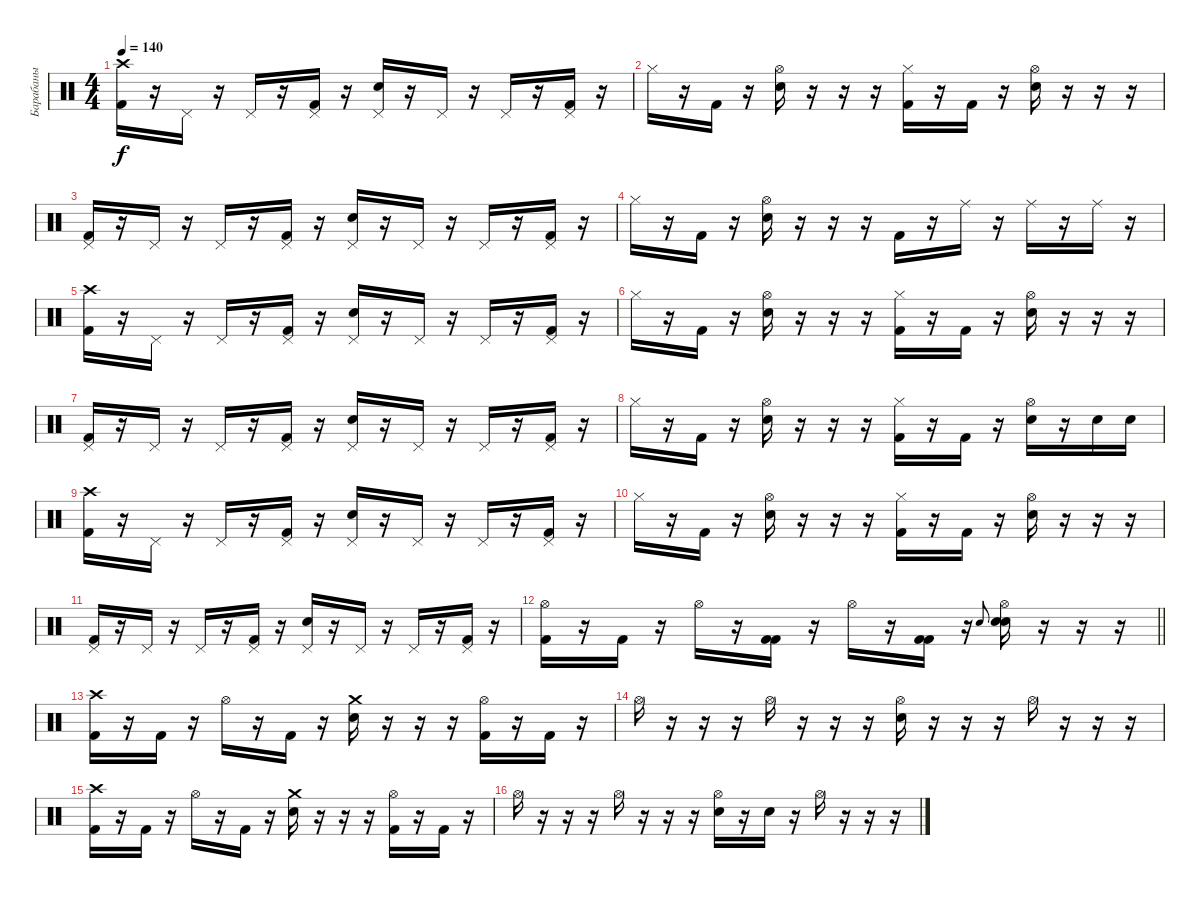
\track ("Барабаны" "Барабаны") {instrument percussion}
\staff {score}
\articulation defaults
\ts (4 4)
\tempo 140
\clef neutral
\ks c
("Crash high (hit)" "Kick (hit) 2").16{dy f} r.16 "Pedal Hi-Hat (hit)".16 r.16 "Pedal Hi-Hat (hit)".16 r.16 ("Pedal Hi-Hat (hit)" "Kick (hit) 2").16 r.16 ("Pedal Hi-Hat (hit)" "Electric Snare (hit)").16 r.16 "Pedal Hi-Hat (hit)".16 r.16 "Pedal Hi-Hat (hit)".16 r.16 ("Pedal Hi-Hat (hit)" "Kick (hit) 2").16 r.16 |
"Hi-Hat (closed)".16 r.16 "Kick (hit) 2".16 r.16 ("Hi-Hat (open)" "Electric Snare (hit)").16 r.16 r.16 r.16 ("Hi-Hat (closed)" "Kick (hit) 2").16 r.16 "Kick (hit) 2".16 r.16 ("Hi-Hat (open)" "Electric Snare (hit)").16 r.16 r.16 r.16 |
("Pedal Hi-Hat (hit)" "Kick (hit) 2").16 r.16 "Pedal Hi-Hat (hit)".16 r.16 "Pedal Hi-Hat (hit)".16 r.16 ("Pedal Hi-Hat (hit)" "Kick (hit) 2").16 r.16 ("Pedal Hi-Hat (hit)" "Electric Snare (hit)").16 r.16 "Pedal Hi-Hat (hit)".16 r.16 "Pedal Hi-Hat (hit)".16 r.16 ("Pedal Hi-Hat (hit)" "Kick (hit) 2").16 r.16 |
"Hi-Hat (closed)".16 r.16 "Kick (hit) 2".16 r.16 ("Hi-Hat (open)" "Electric Snare (hit)").16 r.16 r.16 r.16 "Kick (hit) 2".16 r.16 "Ride (middle)".16 r.16 "Ride (middle)".16 r.16 "Ride (middle)".16 r.16 |
("Crash high (hit)" "Kick (hit) 2").16 r.16 "Pedal Hi-Hat (hit)".16 r.16 "Pedal Hi-Hat (hit)".16 r.16 ("Pedal Hi-Hat (hit)" "Kick (hit) 2").16 r.16 ("Pedal Hi-Hat (hit)" "Electric Snare (hit)").16 r.16 "Pedal Hi-Hat (hit)".16 r.16 "Pedal Hi-Hat (hit)".16 r.16 ("Pedal Hi-Hat (hit)" "Kick (hit) 2").16 r.16 |
"Hi-Hat (closed)".16 r.16 "Kick (hit) 2".16 r.16 ("Hi-Hat (open)" "Electric Snare (hit)").16 r.16 r.16 r.16 ("Hi-Hat (closed)" "Kick (hit) 2").16 r.16 "Kick (hit) 2".16 r.16 ("Hi-Hat (open)" "Electric Snare (hit)").16 r.16 r.16 r.16 |
("Pedal Hi-Hat (hit)" "Kick (hit) 2").16 r.16 "Pedal Hi-Hat (hit)".16 r.16 "Pedal Hi-Hat (hit)".16 r.16 ("Pedal Hi-Hat (hit)" "Kick (hit) 2").16 r.16 ("Pedal Hi-Hat (hit)" "Electric Snare (hit)").16 r.16 "Pedal Hi-Hat (hit)".16 r.16 "Pedal Hi-Hat (hit)".16 r.16 ("Pedal Hi-Hat (hit)" "Kick (hit) 2").16 r.16 |
"Hi-Hat (closed)".16 r.16 "Kick (hit) 2".16 r.16 ("Hi-Hat (open)" "Electric Snare (hit)").16 r.16 r.16 r.16 ("Hi-Hat (closed)" "Kick (hit) 2").16 r.16 "Kick (hit) 2".16 r.16 ("Hi-Hat (open)" "Electric Snare (hit)").16 r.16 "Electric Snare (hit)".16 "Electric Snare (hit)".16 |
("Crash high (hit)" "Kick (hit) 2").16 r.16 "Pedal Hi-Hat (hit)".16 r.16 "Pedal Hi-Hat (hit)".16 r.16 ("Pedal Hi-Hat (hit)" "Kick (hit) 2").16 r.16 ("Pedal Hi-Hat (hit)" "Electric Snare (hit)").16 r.16 "Pedal Hi-Hat (hit)".16 r.16 "Pedal Hi-Hat (hit)".16 r.16 ("Pedal Hi-Hat (hit)" "Kick (hit) 2").16 r.16 |
"Hi-Hat (closed)".16 r.16 "Kick (hit) 2".16 r.16 ("Hi-Hat (open)" "Electric Snare (hit)").16 r.16 r.16 r.16 ("Hi-Hat (closed)" "Kick (hit) 2").16 r.16 "Kick (hit) 2".16 r.16 ("Hi-Hat (open)" "Electric Snare (hit)").16 r.16 r.16 r.16 |
("Pedal Hi-Hat (hit)" "Kick (hit) 2").16 r.16 "Pedal Hi-Hat (hit)".16 r.16 "Pedal Hi-Hat (hit)".16 r.16 ("Pedal Hi-Hat (hit)" "Kick (hit) 2").16 r.16 ("Pedal Hi-Hat (hit)" "Electric Snare (hit)").16 r.16 "Pedal Hi-Hat (hit)".16 r.16 "Pedal Hi-Hat (hit)".16 r.16 ("Pedal Hi-Hat (hit)" "Kick (hit) 2").16 r.16 |
\barLineRight lightlight
("Hi-Hat (open)" "Kick (hit) 2").16 r.16 "Kick (hit) 2".16 r.16 "Hi-Hat (open)".16 r.16 ("Kick (hit) 2" "Kick (hit) 2").16 r.16 "Hi-Hat (open)".16 r.16 ("Kick (hit) 2" "Kick (hit) 2").16 r.16 "Electric Snare (hit)".8{gr onbeat} ("Hi-Hat (open)" "Electric Snare (hit)" "Electric Snare (hit)").16 r.16 r.16 r.16 |
\section ("" " ")
("Crash high (hit)" "Kick (hit) 2").16 r.16 "Kick (hit) 2".16 r.16 "Hi-Hat (open)".16 r.16 "Kick (hit) 2".16 r.16 ("Crash medium (hit)" "Electric Snare (hit)").16 r.16 r.16 r.16 ("Hi-Hat (open)" "Kick (hit) 2").16 r.16 "Kick (hit) 2".16 r.16 |
"Hi-Hat (open)".16 r.16 r.16 r.16 "Hi-Hat (open)".16 r.16 r.16 r.16 ("Hi-Hat (open)" "Electric Snare (hit)").16 r.16 r.16 r.16 "Hi-Hat (open)".16 r.16 r.16 r.16 |
("Crash high (hit)" "Kick (hit) 2").16 r.16 "Kick (hit) 2".16 r.16 "Hi-Hat (open)".16 r.16 "Kick (hit) 2".16 r.16 ("Crash medium (hit)" "Electric Snare (hit)").16 r.16 r.16 r.16 ("Hi-Hat (open)" "Kick (hit) 2").16 r.16 "Kick (hit) 2".16 r.16 |
"Hi-Hat (open)".16 r.16 r.16 r.16 "Hi-Hat (open)".16 r.16 r.16 r.16 ("Hi-Hat (open)" "Electric Snare (hit)").16 r.16 "Electric Snare (hit)".16 r.16 "Hi-Hat (open)".16 r.16 r.16 r.16
